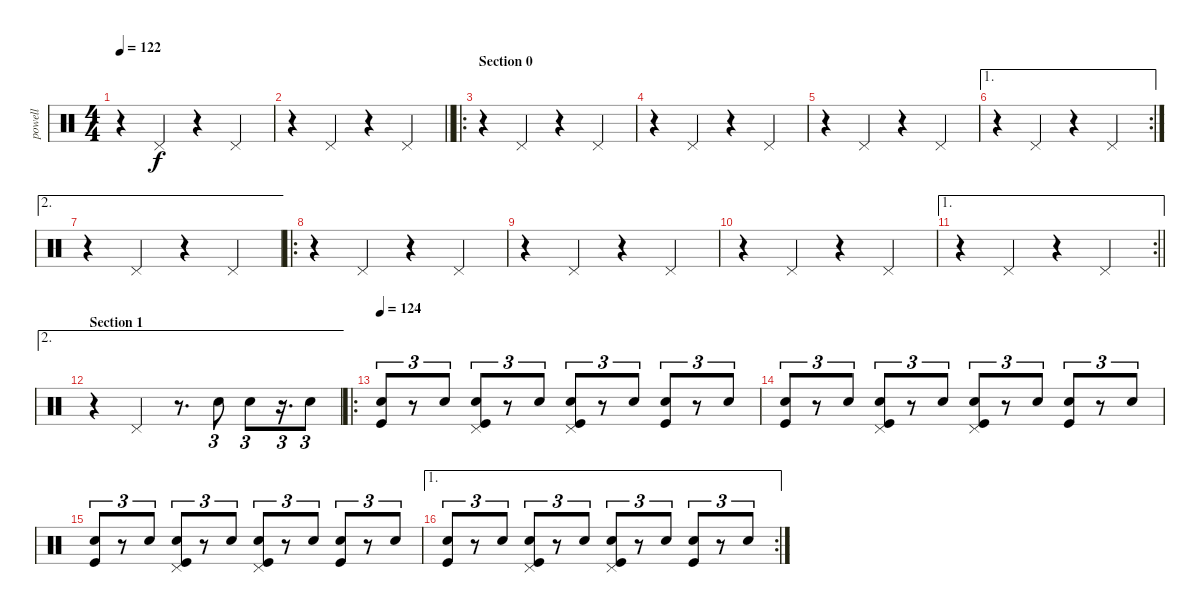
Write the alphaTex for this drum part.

\track ("powell" "powell") {instrument percussion}
\staff {score}
\articulation defaults
\ts (4 4)
\tempo 122
\clef neutral
\ks c
r.4{dy f} "Pedal Hi-Hat (hit)".4 r.4 "Pedal Hi-Hat (hit)".4 |
\barLineRight lightlight
r.4 "Pedal Hi-Hat (hit)".4 r.4 "Pedal Hi-Hat (hit)".4 |
\ro
\section ("" "Section 0")
r.4 "Pedal Hi-Hat (hit)".4 r.4 "Pedal Hi-Hat (hit)".4 |
r.4 "Pedal Hi-Hat (hit)".4 r.4 "Pedal Hi-Hat (hit)".4 |
r.4 "Pedal Hi-Hat (hit)".4 r.4 "Pedal Hi-Hat (hit)".4 |
\ae 1
\rc 2
r.4 "Pedal Hi-Hat (hit)".4 r.4 "Pedal Hi-Hat (hit)".4 |
\ae 2
r.4 "Pedal Hi-Hat (hit)".4 r.4 "Pedal Hi-Hat (hit)".4 |
\ro
r.4 "Pedal Hi-Hat (hit)".4 r.4 "Pedal Hi-Hat (hit)".4 |
r.4 "Pedal Hi-Hat (hit)".4 r.4 "Pedal Hi-Hat (hit)".4 |
r.4 "Pedal Hi-Hat (hit)".4 r.4 "Pedal Hi-Hat (hit)".4 |
\ae 1
\rc 2
\barLineRight lightlight
r.4 "Pedal Hi-Hat (hit)".4 r.4 "Pedal Hi-Hat (hit)".4 |
\ae 2
\section ("" "Section 1")
r.4 "Pedal Hi-Hat (hit)".4 r.8{d} "Snare (hit) 2".8{tu (3 2) volume 8} "Snare (hit) 2".8{tu (3 2)} r.16{d tu (3 2)} "Snare (hit) 2".8{tu (3 2)} |
\ro
\tempo 124
("Snare (hit) 2" "Kick (hit)").8{tu (3 2) volume 9} r.8{tu (3 2)} "Snare (hit) 2".8{tu (3 2) volume 5} ("Snare (hit) 2" "Pedal Hi-Hat (hit)" "Kick (hit)").8{tu (3 2) volume 7} r.8{tu (3 2)} "Snare (hit) 2".8{tu (3 2) volume 8} ("Snare (hit) 2" "Pedal Hi-Hat (hit)" "Kick (hit)").8{tu (3 2)} r.8{tu (3 2)} "Snare (hit) 2".8{tu (3 2)} ("Snare (hit) 2" "Kick (hit)").8{tu (3 2)} r.8{tu (3 2)} "Snare (hit) 2".8{tu (3 2)} |
("Snare (hit) 2" "Kick (hit)").8{tu (3 2) volume 9} r.8{tu (3 2)} "Snare (hit) 2".8{tu (3 2) volume 5} ("Snare (hit) 2" "Pedal Hi-Hat (hit)" "Kick (hit)").8{tu (3 2) volume 7} r.8{tu (3 2)} "Snare (hit) 2".8{tu (3 2) volume 8} ("Snare (hit) 2" "Pedal Hi-Hat (hit)" "Kick (hit)").8{tu (3 2)} r.8{tu (3 2)} "Snare (hit) 2".8{tu (3 2)} ("Snare (hit) 2" "Kick (hit)").8{tu (3 2)} r.8{tu (3 2)} "Snare (hit) 2".8{tu (3 2)} |
("Snare (hit) 2" "Kick (hit)").8{tu (3 2) volume 9} r.8{tu (3 2)} "Snare (hit) 2".8{tu (3 2) volume 5} ("Snare (hit) 2" "Pedal Hi-Hat (hit)" "Kick (hit)").8{tu (3 2) volume 7} r.8{tu (3 2)} "Snare (hit) 2".8{tu (3 2) volume 8} ("Snare (hit) 2" "Pedal Hi-Hat (hit)" "Kick (hit)").8{tu (3 2)} r.8{tu (3 2)} "Snare (hit) 2".8{tu (3 2)} ("Snare (hit) 2" "Kick (hit)").8{tu (3 2)} r.8{tu (3 2)} "Snare (hit) 2".8{tu (3 2)} |
\ae 1
\rc 2
("Snare (hit) 2" "Kick (hit)").8{tu (3 2) volume 9} r.8{tu (3 2)} "Snare (hit) 2".8{tu (3 2) volume 5} ("Snare (hit) 2" "Pedal Hi-Hat (hit)" "Kick (hit)").8{tu (3 2) volume 7} r.8{tu (3 2)} "Snare (hit) 2".8{tu (3 2) volume 8} ("Snare (hit) 2" "Pedal Hi-Hat (hit)" "Kick (hit)").8{tu (3 2)} r.8{tu (3 2)} "Snare (hit) 2".8{tu (3 2)} ("Snare (hit) 2" "Kick (hit)").8{tu (3 2)} r.8{tu (3 2)} "Snare (hit) 2".8{tu (3 2)}
